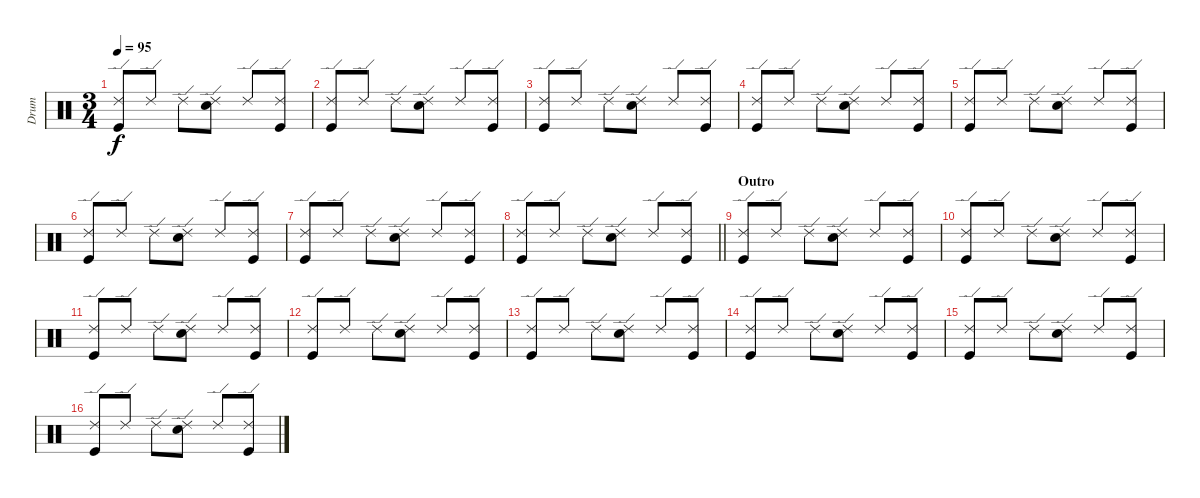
\track ("Drum" "Drum") {instrument percussion}
\staff {score}
\articulation defaults
\ts (3 4)
\tempo 95
\clef neutral
\ks c
("Kick (hit)" "Ride (edge) 2").8{dy f} "Ride (edge) 2".8 "Ride (edge) 2".8 ("Snare (hit) 2" "Ride (edge) 2").8 "Ride (edge) 2".8 ("Kick (hit)" "Ride (edge) 2").8 |
("Kick (hit)" "Ride (edge) 2").8 "Ride (edge) 2".8 "Ride (edge) 2".8 ("Snare (hit) 2" "Ride (edge) 2").8 "Ride (edge) 2".8 ("Kick (hit)" "Ride (edge) 2").8 |
("Kick (hit)" "Ride (edge) 2").8 "Ride (edge) 2".8 "Ride (edge) 2".8 ("Snare (hit) 2" "Ride (edge) 2").8 "Ride (edge) 2".8 ("Kick (hit)" "Ride (edge) 2").8 |
("Kick (hit)" "Ride (edge) 2").8 "Ride (edge) 2".8 "Ride (edge) 2".8 ("Snare (hit) 2" "Ride (edge) 2").8 "Ride (edge) 2".8 ("Kick (hit)" "Ride (edge) 2").8 |
("Kick (hit)" "Ride (edge) 2").8 "Ride (edge) 2".8 "Ride (edge) 2".8 ("Snare (hit) 2" "Ride (edge) 2").8 "Ride (edge) 2".8 ("Kick (hit)" "Ride (edge) 2").8 |
("Kick (hit)" "Ride (edge) 2").8 "Ride (edge) 2".8 "Ride (edge) 2".8 ("Snare (hit) 2" "Ride (edge) 2").8 "Ride (edge) 2".8 ("Kick (hit)" "Ride (edge) 2").8 |
("Kick (hit)" "Ride (edge) 2").8 "Ride (edge) 2".8 "Ride (edge) 2".8 ("Snare (hit) 2" "Ride (edge) 2").8 "Ride (edge) 2".8 ("Kick (hit)" "Ride (edge) 2").8 |
\barLineRight lightlight
("Kick (hit)" "Ride (edge) 2").8 "Ride (edge) 2".8 "Ride (edge) 2".8 ("Snare (hit) 2" "Ride (edge) 2").8 "Ride (edge) 2".8 ("Kick (hit)" "Ride (edge) 2").8 |
\section ("" "Outro")
("Kick (hit)" "Ride (edge) 2").8 "Ride (edge) 2".8 "Ride (edge) 2".8 ("Snare (hit) 2" "Ride (edge) 2").8 "Ride (edge) 2".8 ("Kick (hit)" "Ride (edge) 2").8 |
("Kick (hit)" "Ride (edge) 2").8 "Ride (edge) 2".8 "Ride (edge) 2".8 ("Snare (hit) 2" "Ride (edge) 2").8 "Ride (edge) 2".8 ("Kick (hit)" "Ride (edge) 2").8 |
("Kick (hit)" "Ride (edge) 2").8 "Ride (edge) 2".8 "Ride (edge) 2".8 ("Snare (hit) 2" "Ride (edge) 2").8 "Ride (edge) 2".8 ("Kick (hit)" "Ride (edge) 2").8 |
("Kick (hit)" "Ride (edge) 2").8 "Ride (edge) 2".8 "Ride (edge) 2".8 ("Snare (hit) 2" "Ride (edge) 2").8 "Ride (edge) 2".8 ("Kick (hit)" "Ride (edge) 2").8 |
("Kick (hit)" "Ride (edge) 2").8 "Ride (edge) 2".8 "Ride (edge) 2".8 ("Snare (hit) 2" "Ride (edge) 2").8 "Ride (edge) 2".8 ("Kick (hit)" "Ride (edge) 2").8 |
("Kick (hit)" "Ride (edge) 2").8 "Ride (edge) 2".8 "Ride (edge) 2".8 ("Snare (hit) 2" "Ride (edge) 2").8 "Ride (edge) 2".8 ("Kick (hit)" "Ride (edge) 2").8 |
("Kick (hit)" "Ride (edge) 2").8 "Ride (edge) 2".8 "Ride (edge) 2".8 ("Snare (hit) 2" "Ride (edge) 2").8 "Ride (edge) 2".8 ("Kick (hit)" "Ride (edge) 2").8 |
("Kick (hit)" "Ride (edge) 2").8 "Ride (edge) 2".8 "Ride (edge) 2".8 ("Snare (hit) 2" "Ride (edge) 2").8 "Ride (edge) 2".8 ("Kick (hit)" "Ride (edge) 2").8
